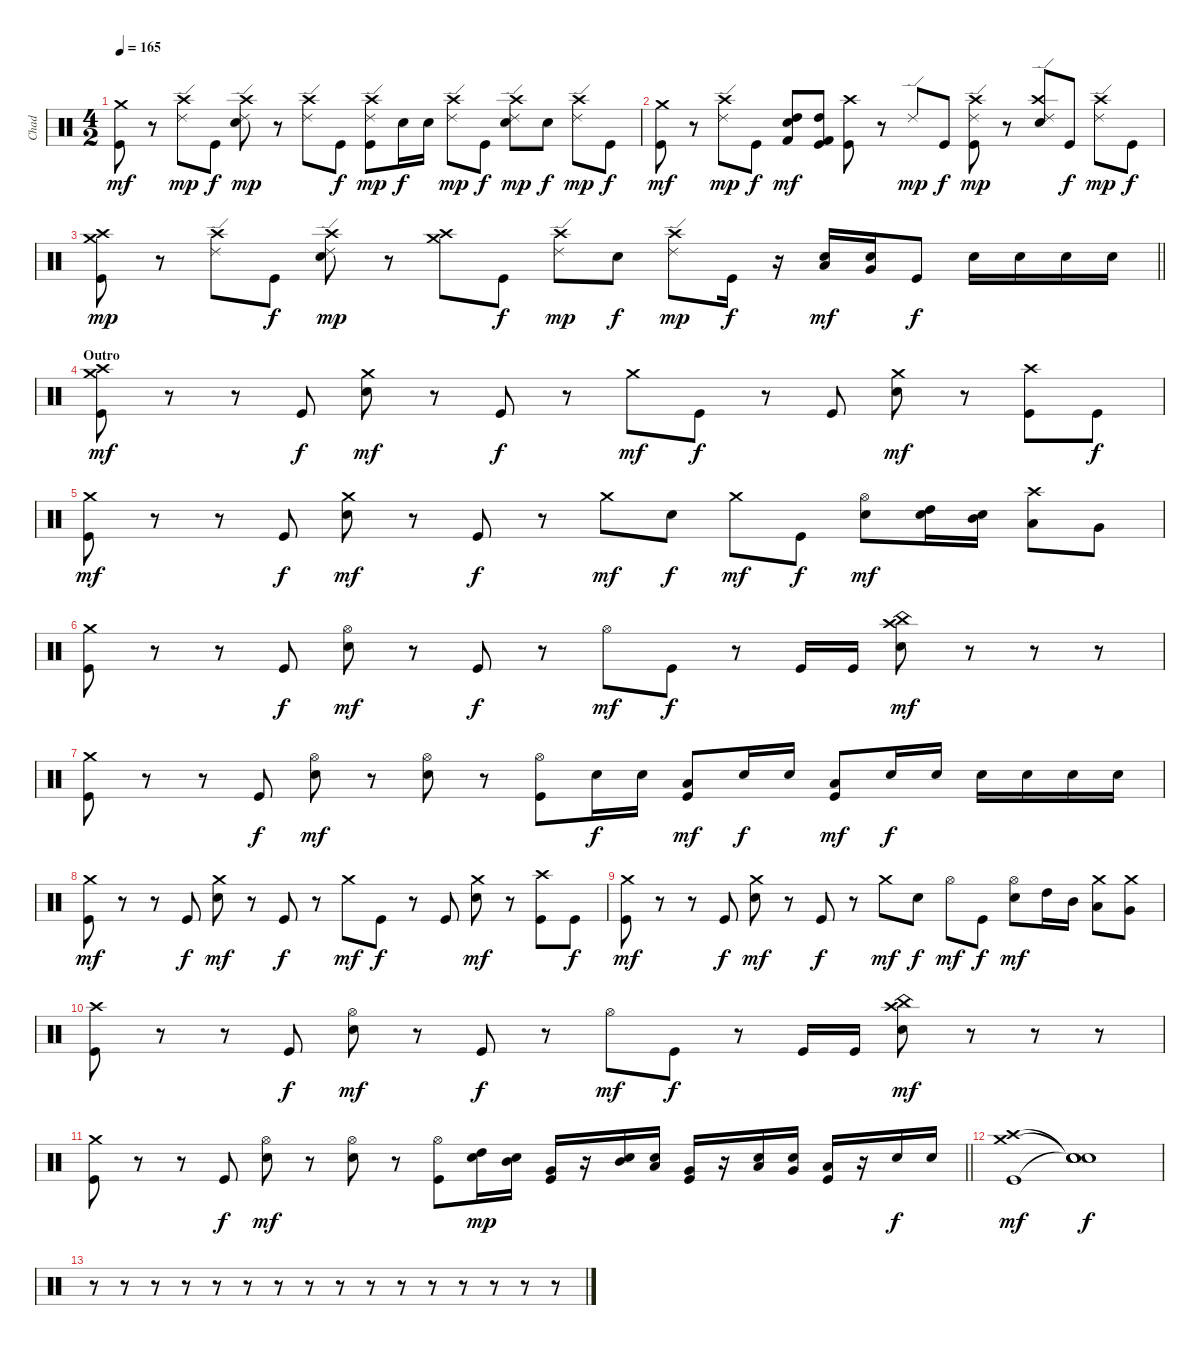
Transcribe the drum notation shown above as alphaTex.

\track ("Chad" "Chad") {instrument percussion}
\staff {score}
\articulation defaults
\ts (4 2)
\tempo 165
\clef neutral
\ks c
("Kick (hit)" "Crash medium (hit)").8{dy mf} r.8 ("Ride (edge) 2" "Crash high (hit)").8{dy mp} "Kick (hit)".8{dy f} ("Snare (hit) 2" "Ride (edge) 2" "Crash high (hit)").8{dy mp} r.8 ("Ride (edge) 2" "Crash high (hit)").8 "Kick (hit)".8{dy f} ("Kick (hit)" "Ride (edge) 2" "Crash high (hit)").8{dy mp} "Snare (hit) 2".16{dy f} "Snare (hit) 2".16 ("Ride (edge) 2" "Crash high (hit)").8{dy mp} "Kick (hit)".8{dy f} ("Snare (hit) 2" "Ride (edge) 2" "Crash high (hit)").8{dy mp} "Snare (hit) 2".8{dy f} ("Ride (edge) 2" "Crash high (hit)").8{dy mp} "Kick (hit)".8{dy f} |
("Kick (hit)" "Crash medium (hit)").8{dy mf} r.8 ("Ride (edge) 2" "Crash high (hit)").8{dy mp} "Kick (hit)".8{dy f} ("Snare (hit) 2" "High Tom (hit)" "Kick (hit) 2").8{dy mf} ("Kick (hit)" "High Tom (hit)" "Kick (hit) 2").8 ("Kick (hit)" "Crash high (hit)").8 r.8 "Ride (edge) 2".8{dy mp} "Kick (hit)".8{dy f} ("Kick (hit)" "Ride (edge) 2" "Crash high (hit)").8{dy mp} r.8 ("Snare (hit) 2" "Ride (edge) 2" "Crash high (hit)").8 "Kick (hit)".8{dy f} ("Ride (edge) 2" "Crash high (hit)").8{dy mp} "Kick (hit)".8{dy f} |
\barLineRight lightlight
("Kick (hit)" "Crash medium (hit)" "Crash high (hit)").8{dy mp} r.8 ("Ride (edge) 2" "Crash high (hit)").8 "Kick (hit)".8{dy f} ("Snare (hit) 2" "Ride (edge) 2" "Crash high (hit)").8{dy mp} r.8 ("Crash medium (hit)" "Crash high (hit)").8 "Kick (hit)".8{dy f} ("Ride (edge) 2" "Crash high (hit)").8{dy mp} "Snare (hit) 2".8{dy f} ("Ride (edge) 2" "Crash high (hit)").8{dy mp} "Kick (hit)".16{dy f} r.16 ("Snare (hit) 2" "Low Tom (hit)").16{dy mf} ("Snare (hit) 2" "Very Low Tom (hit)").16 "Kick (hit)".8{dy f} "Snare (hit) 2".16 "Snare (hit) 2".16 "Snare (hit) 2".16 "Snare (hit) 2".16 |
\section ("" "Outro")
("Kick (hit)" "Crash medium (hit)" "Crash high (hit)").8{dy mf} r.8 r.8 "Kick (hit)".8{dy f} ("Snare (hit) 2" "Crash medium (hit)").8{dy mf} r.8 "Kick (hit)".8{dy f} r.8 "Crash medium (hit)".8{dy mf} "Kick (hit)".8{dy f} r.8 "Kick (hit)".8 ("Snare (hit) 2" "Crash medium (hit)").8{dy mf} r.8 ("Kick (hit)" "Crash high (hit)").8 "Kick (hit)".8{dy f} |
("Kick (hit)" "Crash medium (hit)").8{dy mf} r.8 r.8 "Kick (hit)".8{dy f} ("Snare (hit) 2" "Crash medium (hit)").8{dy mf} r.8 "Kick (hit)".8{dy f} r.8 "Crash medium (hit)".8{dy mf} "Snare (hit) 2".8{dy f} "Crash medium (hit)".8{dy mf} "Kick (hit)".8{dy f} ("Snare (hit) 2" "Hi-Hat (open)").8{dy mf} ("Snare (hit) 2" "High Tom (hit)").16 ("Snare (hit) 2" "Mid Tom (hit)").16 ("Low Tom (hit)" "Crash high (hit)").8 "Very Low Tom (hit)".8 |
("Kick (hit)" "Crash medium (hit)").8 r.8 r.8 "Kick (hit)".8{dy f} ("Snare (hit) 2" "Hi-Hat (open)").8{dy mf} r.8 "Kick (hit)".8{dy f} r.8 "Hi-Hat (open)".8{dy mf} "Kick (hit)".8{dy f} r.8 "Kick (hit)".16 "Kick (hit)".16 ("Snare (hit) 2" "China (hit)" "Crash high (hit)").8{dy mf} r.8 r.8 r.8 |
("Kick (hit)" "Crash medium (hit)").8 r.8 r.8 "Kick (hit)".8{dy f} ("Snare (hit) 2" "Hi-Hat (open)").8{dy mf} r.8 ("Snare (hit) 2" "Hi-Hat (open)").8 r.8 ("Kick (hit)" "Hi-Hat (open)").8 "Snare (hit) 2".16{dy f} "Snare (hit) 2".16 ("Kick (hit)" "Low Tom (hit)").8{dy mf} "Snare (hit) 2".16{dy f} "Snare (hit) 2".16 ("Kick (hit)" "Low Tom (hit)").8{dy mf} "Snare (hit) 2".16{dy f} "Snare (hit) 2".16 "Snare (hit) 2".16 "Snare (hit) 2".16 "Snare (hit) 2".16 "Snare (hit) 2".16 |
("Kick (hit)" "Crash medium (hit)").8{dy mf} r.8 r.8 "Kick (hit)".8{dy f} ("Snare (hit) 2" "Crash medium (hit)").8{dy mf} r.8 "Kick (hit)".8{dy f} r.8 "Crash medium (hit)".8{dy mf} "Kick (hit)".8{dy f} r.8 "Kick (hit)".8 ("Snare (hit) 2" "Crash medium (hit)").8{dy mf} r.8 ("Kick (hit)" "Crash high (hit)").8 "Kick (hit)".8{dy f} |
("Kick (hit)" "Crash medium (hit)").8{dy mf} r.8 r.8 "Kick (hit)".8{dy f} ("Snare (hit) 2" "Crash medium (hit)").8{dy mf} r.8 "Kick (hit)".8{dy f} r.8 "Crash medium (hit)".8{dy mf} "Snare (hit) 2".8{dy f} "Hi-Hat (open)".8{dy mf} "Kick (hit)".8{dy f} ("Snare (hit) 2" "Hi-Hat (open)").8{dy mf} "High Tom (hit)".16 "Mid Tom (hit)".16 ("Low Tom (hit)" "Crash medium (hit)").8 ("Very Low Tom (hit)" "Crash medium (hit)").8 |
("Kick (hit)" "Crash high (hit)").8 r.8 r.8 "Kick (hit)".8{dy f} ("Snare (hit) 2" "Hi-Hat (open)").8{dy mf} r.8 "Kick (hit)".8{dy f} r.8 "Hi-Hat (open)".8{dy mf} "Kick (hit)".8{dy f} r.8 "Kick (hit)".16 "Kick (hit)".16 ("Snare (hit) 2" "China (hit)" "Crash high (hit)").8{dy mf} r.8 r.8 r.8 |
\barLineRight lightlight
("Kick (hit)" "Crash medium (hit)").8 r.8 r.8 "Kick (hit)".8{dy f} ("Snare (hit) 2" "Hi-Hat (open)").8{dy mf} r.8 ("Snare (hit) 2" "Hi-Hat (open)").8 r.8 ("Kick (hit)" "Hi-Hat (open)").8 ("Snare (hit) 2" "High Tom (hit)").16{dy mp} ("Snare (hit) 2" "Mid Tom (hit)").16 ("Kick (hit)" "Very Low Tom (hit)").16 r.16 ("Snare (hit) 2" "Mid Tom (hit)").16 ("Snare (hit) 2" "Low Tom (hit)").16 ("Kick (hit)" "Very Low Tom (hit)").16 r.16 ("Snare (hit) 2" "Low Tom (hit)").16 ("Snare (hit) 2" "Very Low Tom (hit)").16 ("Kick (hit)" "Low Floor Tom (hit)").16 r.16 "Snare (hit) 2".16{dy f} "Snare (hit) 2".16 |
("Kick (hit)" "Crash medium (hit)" "Crash high (hit)").1{dy mf} ("Snare (hit)"{t} "Snare (hit)"{t} "Snare (hit)"{t}).1{dy f} |
r.8 r.8 r.8 r.8 r.8 r.8 r.8 r.8 r.8 r.8 r.8 r.8 r.8 r.8 r.8 r.8
